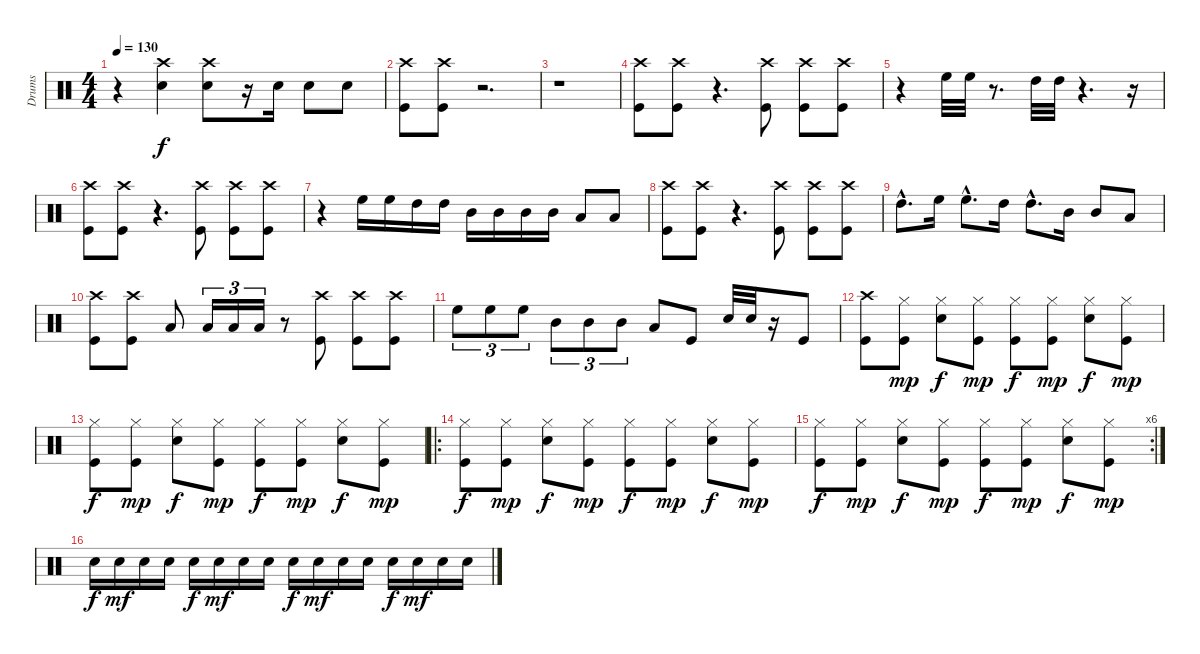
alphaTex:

\track ("Drums" "Drums") {instrument percussion}
\staff {score}
\articulation defaults
\ts (4 4)
\tempo 130
\clef neutral
\ks c
r.4{dy f} ("Snare (hit) 2" "Crash high (hit)").4 ("Snare (hit) 2" "Crash high (hit)").8 r.16 "Snare (hit) 2".16 "Snare (hit) 2".8 "Snare (hit) 2".8 |
("Kick (hit)" "Crash high (hit)").8 ("Kick (hit)" "Crash high (hit)").8 r.2{d} |
r.1 |
("Kick (hit)" "Crash high (hit)").8 ("Kick (hit)" "Crash high (hit)").8 r.4{d} ("Kick (hit)" "Crash high (hit)").8 ("Kick (hit)" "Crash high (hit)").8 ("Kick (hit)" "Crash high (hit)").8 |
r.4 "High Floor Tom (hit)".32 "High Floor Tom (hit)".32 r.8{d} "High Tom (hit)".32 "High Tom (hit)".32 r.4{d} r.16 |
("Kick (hit)" "Crash high (hit)").8 ("Kick (hit)" "Crash high (hit)").8 r.4{d} ("Kick (hit)" "Crash high (hit)").8 ("Kick (hit)" "Crash high (hit)").8 ("Kick (hit)" "Crash high (hit)").8 |
r.4 "High Floor Tom (hit)".16 "High Floor Tom (hit)".16 "High Tom (hit)".16 "High Tom (hit)".16 "Mid Tom (hit)".16 "Mid Tom (hit)".16 "Mid Tom (hit)".16 "Mid Tom (hit)".16 "Low Tom (hit)".8 "Low Tom (hit)".8 |
("Kick (hit)" "Crash high (hit)").8 ("Kick (hit)" "Crash high (hit)").8 r.4{d} ("Kick (hit)" "Crash high (hit)").8 ("Kick (hit)" "Crash high (hit)").8 ("Kick (hit)" "Crash high (hit)").8 |
"High Tom (hit)"{hac}.8{d} "High Floor Tom (hit)".16 "High Floor Tom (hit)"{hac}.8{d} "High Tom (hit)".16 "High Tom (hit)"{hac}.8{d} "Mid Tom (hit)".16 "Mid Tom (hit)".8 "Low Tom (hit)".8 |
("Kick (hit)" "Crash high (hit)").8 ("Kick (hit)" "Crash high (hit)").8 "Low Tom (hit)".8 "Low Tom (hit)".16{tu (3 2)} "Low Tom (hit)".16{tu (3 2)} "Low Tom (hit)".16{tu (3 2)} r.8 ("Kick (hit)" "Crash high (hit)").8 ("Kick (hit)" "Crash high (hit)").8 ("Kick (hit)" "Crash high (hit)").8 |
"High Floor Tom (hit)".8{tu (3 2)} "High Floor Tom (hit)".8{tu (3 2)} "High Floor Tom (hit)".8{tu (3 2)} "Mid Tom (hit)".8{tu (3 2)} "Mid Tom (hit)".8{tu (3 2)} "Mid Tom (hit)".8{tu (3 2)} "Low Tom (hit)".8 "Kick (hit)".8 "Snare (hit) 2".32 "Snare (hit) 2".32 r.16 "Kick (hit)".8 |
("Kick (hit)" "Crash high (hit)").8 ("Hi-Hat (closed)" "Kick (hit)").8{dy mp} ("Hi-Hat (closed)" "Snare (hit) 2").8{dy f} ("Hi-Hat (closed)" "Kick (hit)").8{dy mp} ("Hi-Hat (closed)" "Kick (hit)").8{dy f} ("Hi-Hat (closed)" "Kick (hit)").8{dy mp} ("Hi-Hat (closed)" "Snare (hit) 2").8{dy f} ("Hi-Hat (closed)" "Kick (hit)").8{dy mp} |
("Hi-Hat (closed)" "Kick (hit)").8{dy f} ("Hi-Hat (closed)" "Kick (hit)").8{dy mp} ("Hi-Hat (closed)" "Snare (hit) 2").8{dy f} ("Hi-Hat (closed)" "Kick (hit)").8{dy mp} ("Hi-Hat (closed)" "Kick (hit)").8{dy f} ("Hi-Hat (closed)" "Kick (hit)").8{dy mp} ("Hi-Hat (closed)" "Snare (hit) 2").8{dy f} ("Hi-Hat (closed)" "Kick (hit)").8{dy mp} |
\ro
("Hi-Hat (closed)" "Kick (hit)").8{dy f} ("Hi-Hat (closed)" "Kick (hit)").8{dy mp} ("Hi-Hat (closed)" "Snare (hit) 2").8{dy f} ("Hi-Hat (closed)" "Kick (hit)").8{dy mp} ("Hi-Hat (closed)" "Kick (hit)").8{dy f} ("Hi-Hat (closed)" "Kick (hit)").8{dy mp} ("Hi-Hat (closed)" "Snare (hit) 2").8{dy f} ("Hi-Hat (closed)" "Kick (hit)").8{dy mp} |
\rc 6
("Hi-Hat (closed)" "Kick (hit)").8{dy f} ("Hi-Hat (closed)" "Kick (hit)").8{dy mp} ("Hi-Hat (closed)" "Snare (hit) 2").8{dy f} ("Hi-Hat (closed)" "Kick (hit)").8{dy mp} ("Hi-Hat (closed)" "Kick (hit)").8{dy f} ("Hi-Hat (closed)" "Kick (hit)").8{dy mp} ("Hi-Hat (closed)" "Snare (hit) 2").8{dy f} ("Hi-Hat (closed)" "Kick (hit)").8{dy mp} |
"Snare (hit) 2".16{dy f} "Snare (hit) 2".16{dy mf} "Snare (hit) 2".16 "Snare (hit) 2".16 "Snare (hit) 2".16{dy f} "Snare (hit) 2".16{dy mf} "Snare (hit) 2".16 "Snare (hit) 2".16 "Snare (hit) 2".16{dy f} "Snare (hit) 2".16{dy mf} "Snare (hit) 2".16 "Snare (hit) 2".16 "Snare (hit) 2".16{dy f} "Snare (hit) 2".16{dy mf} "Snare (hit) 2".16 "Snare (hit) 2".16
